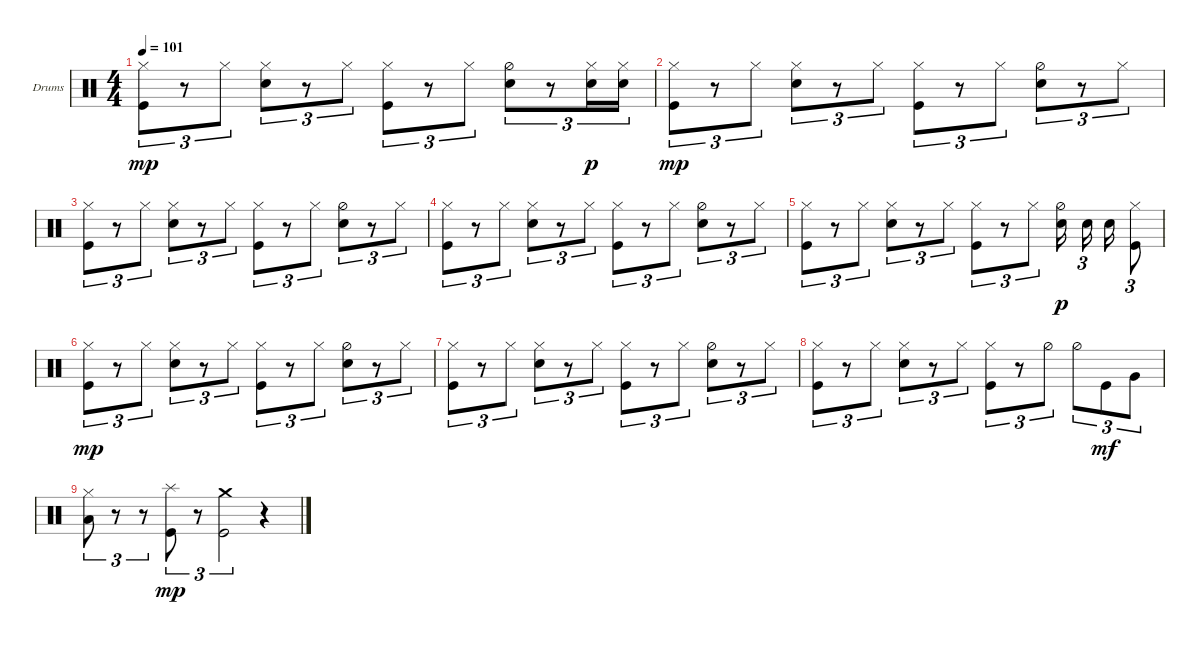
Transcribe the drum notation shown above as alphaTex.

\defaultSystemsLayout 4
\bracketExtendMode groupsimilarinstruments
\firstSystemTrackNameOrientation horizontal
\otherSystemsTrackNameOrientation horizontal
\track ("Drumkit" "Drums") {instrument percussion}
\staff {score}
\articulation defaults
\ts (4 4)
\tempo 101
\clef neutral
\ks c
("Kick (hit)" "Hi-Hat (closed)").8{tu (3 2) dy mp} r.8{tu (3 2)} "Hi-Hat (closed)".8{tu (3 2)} ("Snare (hit) 2" "Hi-Hat (closed)").8{tu (3 2)} r.8{tu (3 2)} "Hi-Hat (closed)".8{tu (3 2)} ("Hi-Hat (closed)" "Kick (hit)").8{tu (3 2)} r.8{tu (3 2)} "Hi-Hat (closed)".8{tu (3 2)} ("Hi-Hat (half)" "Snare (hit) 2").8{tu (3 2)} r.8{tu (3 2)} ("Hi-Hat (closed)" "Snare (hit) 2").16{tu (3 2) dy p} ("Snare (hit) 2" "Hi-Hat (closed)").16{tu (3 2)} |
("Kick (hit)" "Hi-Hat (closed)").8{tu (3 2) dy mp} r.8{tu (3 2)} "Hi-Hat (closed)".8{tu (3 2)} ("Snare (hit) 2" "Hi-Hat (closed)").8{tu (3 2)} r.8{tu (3 2)} "Hi-Hat (closed)".8{tu (3 2)} ("Hi-Hat (closed)" "Kick (hit)").8{tu (3 2)} r.8{tu (3 2)} "Hi-Hat (closed)".8{tu (3 2)} ("Hi-Hat (half)" "Snare (hit) 2").8{tu (3 2)} r.8{tu (3 2)} "Hi-Hat (closed)".8{tu (3 2)} |
("Kick (hit)" "Hi-Hat (closed)").8{tu (3 2)} r.8{tu (3 2)} "Hi-Hat (closed)".8{tu (3 2)} ("Snare (hit) 2" "Hi-Hat (closed)").8{tu (3 2)} r.8{tu (3 2)} "Hi-Hat (closed)".8{tu (3 2)} ("Hi-Hat (closed)" "Kick (hit)").8{tu (3 2)} r.8{tu (3 2)} "Hi-Hat (closed)".8{tu (3 2)} ("Hi-Hat (half)" "Snare (hit) 2").8{tu (3 2)} r.8{tu (3 2)} "Hi-Hat (closed)".8{tu (3 2)} |
("Kick (hit)" "Hi-Hat (closed)").8{tu (3 2)} r.8{tu (3 2)} "Hi-Hat (closed)".8{tu (3 2)} ("Snare (hit) 2" "Hi-Hat (closed)").8{tu (3 2)} r.8{tu (3 2)} "Hi-Hat (closed)".8{tu (3 2)} ("Hi-Hat (closed)" "Kick (hit)").8{tu (3 2)} r.8{tu (3 2)} "Hi-Hat (closed)".8{tu (3 2)} ("Hi-Hat (half)" "Snare (hit) 2").8{tu (3 2)} r.8{tu (3 2)} "Hi-Hat (closed)".8{tu (3 2)} |
("Kick (hit)" "Hi-Hat (closed)").8{tu (3 2)} r.8{tu (3 2)} "Hi-Hat (closed)".8{tu (3 2)} ("Snare (hit) 2" "Hi-Hat (closed)").8{tu (3 2)} r.8{tu (3 2)} "Hi-Hat (closed)".8{tu (3 2)} ("Hi-Hat (closed)" "Kick (hit)").8{tu (3 2)} r.8{tu (3 2)} "Hi-Hat (closed)".8{tu (3 2)} ("Hi-Hat (half)" "Snare (hit) 2").16{dy p} "Snare (hit) 2".16{tu (3 2)} "Snare (hit) 2".16 ("Hi-Hat (closed)" "Kick (hit)").8{tu (3 2)} |
("Kick (hit)" "Hi-Hat (closed)").8{tu (3 2) dy mp} r.8{tu (3 2)} "Hi-Hat (closed)".8{tu (3 2)} ("Snare (hit) 2" "Hi-Hat (closed)").8{tu (3 2)} r.8{tu (3 2)} "Hi-Hat (closed)".8{tu (3 2)} ("Hi-Hat (closed)" "Kick (hit)").8{tu (3 2)} r.8{tu (3 2)} "Hi-Hat (closed)".8{tu (3 2)} ("Hi-Hat (half)" "Snare (hit) 2").8{tu (3 2)} r.8{tu (3 2)} "Hi-Hat (closed)".8{tu (3 2)} |
("Kick (hit)" "Hi-Hat (closed)").8{tu (3 2)} r.8{tu (3 2)} "Hi-Hat (closed)".8{tu (3 2)} ("Snare (hit) 2" "Hi-Hat (closed)").8{tu (3 2)} r.8{tu (3 2)} "Hi-Hat (closed)".8{tu (3 2)} ("Hi-Hat (closed)" "Kick (hit)").8{tu (3 2)} r.8{tu (3 2)} "Hi-Hat (closed)".8{tu (3 2)} ("Hi-Hat (half)" "Snare (hit) 2").8{tu (3 2)} r.8{tu (3 2)} "Hi-Hat (closed)".8{tu (3 2)} |
("Kick (hit)" "Hi-Hat (closed)").8{tu (3 2)} r.8{tu (3 2)} "Hi-Hat (closed)".8{tu (3 2)} ("Snare (hit) 2" "Hi-Hat (closed)").8{tu (3 2)} r.8{tu (3 2)} "Hi-Hat (closed)".8{tu (3 2)} ("Hi-Hat (closed)" "Kick (hit)").8{tu (3 2)} r.8{tu (3 2)} "Hi-Hat (half)".8{tu (3 2)} "Hi-Hat (half)".8{tu (3 2)} "Kick (hit)".8{tu (3 2) dy mf} "Very Low Tom (hit)".8{tu (3 2)} |
("Hi-Hat (closed)" "Low Tom (hit)").8{tu (3 2)} r.8{tu (3 2)} r.8{tu (3 2)} ("Kick (hit)" "Splash (hit)").8{tu (3 2) dy mp} r.8{tu (3 2)} ("Kick (hit)" "Crash medium (hit)").2{tu (3 2)} r.4
